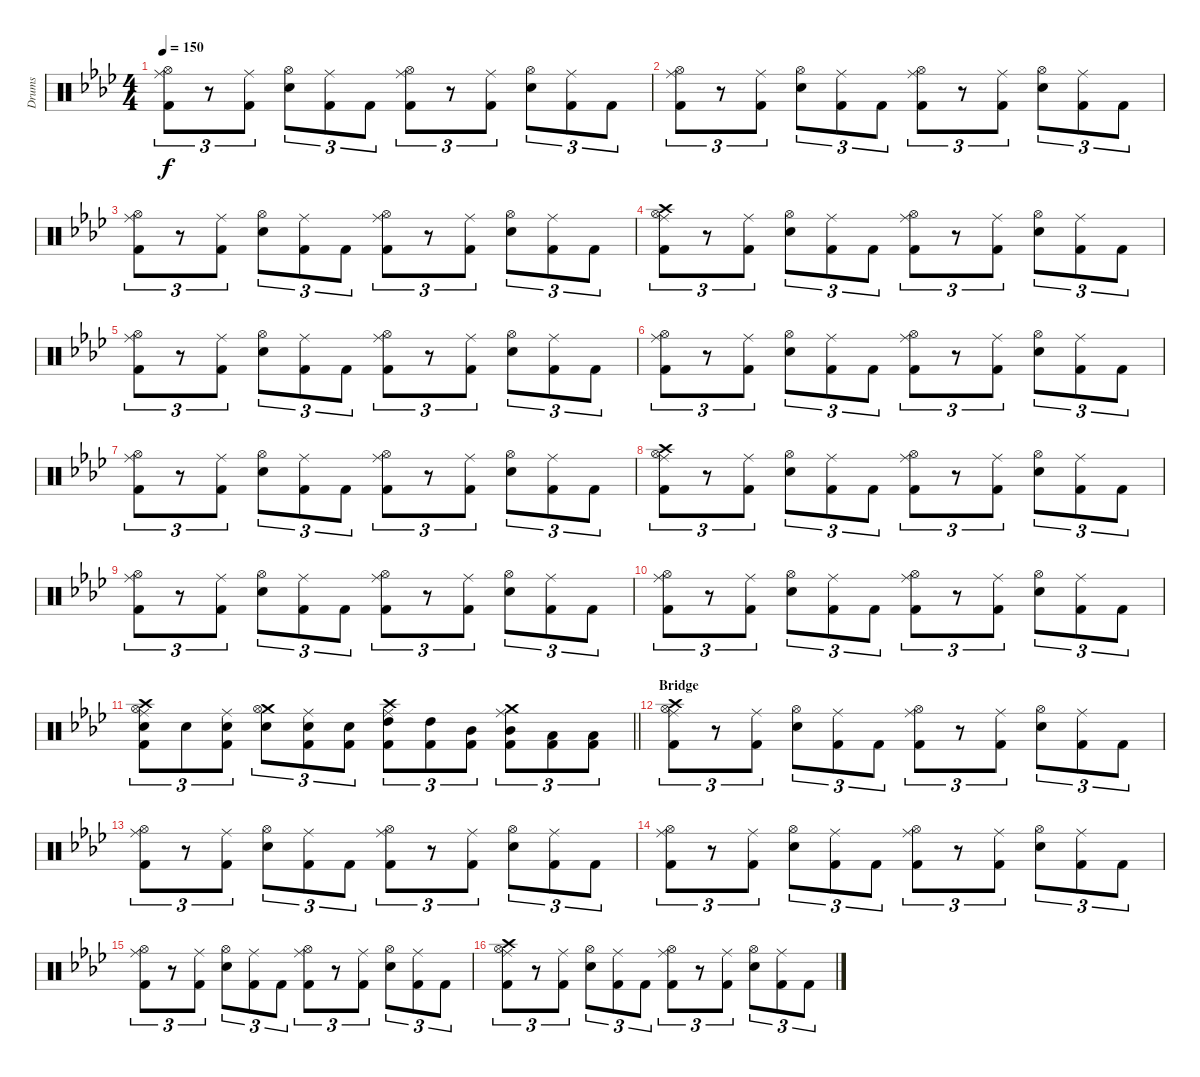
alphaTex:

\track ("Drums" "Drums") {instrument percussion}
\staff {score}
\articulation defaults
\ts (4 4)
\tempo 150
\clef neutral
\ks fminor
("Hi-Hat (open)" "Ride (middle)" "Kick (hit) 2").8{tu (3 2) dy f} r.8{tu (3 2)} ("Ride (middle)" "Kick (hit) 2").8{tu (3 2)} ("Hi-Hat (open)" "Snare (hit) 2").8{tu (3 2)} ("Ride (middle)" "Kick (hit) 2").8{tu (3 2)} "Kick (hit) 2".8{tu (3 2)} ("Hi-Hat (open)" "Ride (middle)" "Kick (hit) 2").8{tu (3 2)} r.8{tu (3 2)} ("Ride (middle)" "Kick (hit) 2").8{tu (3 2)} ("Hi-Hat (open)" "Snare (hit) 2").8{tu (3 2)} ("Ride (middle)" "Kick (hit) 2").8{tu (3 2)} "Kick (hit) 2".8{tu (3 2)} |
("Hi-Hat (open)" "Ride (middle)" "Kick (hit) 2").8{tu (3 2)} r.8{tu (3 2)} ("Ride (middle)" "Kick (hit) 2").8{tu (3 2)} ("Hi-Hat (open)" "Snare (hit) 2").8{tu (3 2)} ("Ride (middle)" "Kick (hit) 2").8{tu (3 2)} "Kick (hit) 2".8{tu (3 2)} ("Hi-Hat (open)" "Ride (middle)" "Kick (hit) 2").8{tu (3 2)} r.8{tu (3 2)} ("Ride (middle)" "Kick (hit) 2").8{tu (3 2)} ("Hi-Hat (open)" "Snare (hit) 2").8{tu (3 2)} ("Ride (middle)" "Kick (hit) 2").8{tu (3 2)} "Kick (hit) 2".8{tu (3 2)} |
("Hi-Hat (open)" "Ride (middle)" "Kick (hit) 2").8{tu (3 2)} r.8{tu (3 2)} ("Ride (middle)" "Kick (hit) 2").8{tu (3 2)} ("Hi-Hat (open)" "Snare (hit) 2").8{tu (3 2)} ("Ride (middle)" "Kick (hit) 2").8{tu (3 2)} "Kick (hit) 2".8{tu (3 2)} ("Hi-Hat (open)" "Ride (middle)" "Kick (hit) 2").8{tu (3 2)} r.8{tu (3 2)} ("Ride (middle)" "Kick (hit) 2").8{tu (3 2)} ("Hi-Hat (open)" "Snare (hit) 2").8{tu (3 2)} ("Ride (middle)" "Kick (hit) 2").8{tu (3 2)} "Kick (hit) 2".8{tu (3 2)} |
("Crash high (hit)" "Hi-Hat (open)" "Ride (middle)" "Kick (hit) 2").8{tu (3 2)} r.8{tu (3 2)} ("Ride (middle)" "Kick (hit) 2").8{tu (3 2)} ("Hi-Hat (open)" "Snare (hit) 2").8{tu (3 2)} ("Ride (middle)" "Kick (hit) 2").8{tu (3 2)} "Kick (hit) 2".8{tu (3 2)} ("Hi-Hat (open)" "Ride (middle)" "Kick (hit) 2").8{tu (3 2)} r.8{tu (3 2)} ("Ride (middle)" "Kick (hit) 2").8{tu (3 2)} ("Hi-Hat (open)" "Snare (hit) 2").8{tu (3 2)} ("Ride (middle)" "Kick (hit) 2").8{tu (3 2)} "Kick (hit) 2".8{tu (3 2)} |
("Hi-Hat (open)" "Ride (middle)" "Kick (hit) 2").8{tu (3 2)} r.8{tu (3 2)} ("Ride (middle)" "Kick (hit) 2").8{tu (3 2)} ("Hi-Hat (open)" "Snare (hit) 2").8{tu (3 2)} ("Ride (middle)" "Kick (hit) 2").8{tu (3 2)} "Kick (hit) 2".8{tu (3 2)} ("Hi-Hat (open)" "Ride (middle)" "Kick (hit) 2").8{tu (3 2)} r.8{tu (3 2)} ("Ride (middle)" "Kick (hit) 2").8{tu (3 2)} ("Hi-Hat (open)" "Snare (hit) 2").8{tu (3 2)} ("Ride (middle)" "Kick (hit) 2").8{tu (3 2)} "Kick (hit) 2".8{tu (3 2)} |
("Hi-Hat (open)" "Ride (middle)" "Kick (hit) 2").8{tu (3 2)} r.8{tu (3 2)} ("Ride (middle)" "Kick (hit) 2").8{tu (3 2)} ("Hi-Hat (open)" "Snare (hit) 2").8{tu (3 2)} ("Ride (middle)" "Kick (hit) 2").8{tu (3 2)} "Kick (hit) 2".8{tu (3 2)} ("Hi-Hat (open)" "Ride (middle)" "Kick (hit) 2").8{tu (3 2)} r.8{tu (3 2)} ("Ride (middle)" "Kick (hit) 2").8{tu (3 2)} ("Hi-Hat (open)" "Snare (hit) 2").8{tu (3 2)} ("Ride (middle)" "Kick (hit) 2").8{tu (3 2)} "Kick (hit) 2".8{tu (3 2)} |
("Hi-Hat (open)" "Ride (middle)" "Kick (hit) 2").8{tu (3 2)} r.8{tu (3 2)} ("Ride (middle)" "Kick (hit) 2").8{tu (3 2)} ("Hi-Hat (open)" "Snare (hit) 2").8{tu (3 2)} ("Ride (middle)" "Kick (hit) 2").8{tu (3 2)} "Kick (hit) 2".8{tu (3 2)} ("Hi-Hat (open)" "Ride (middle)" "Kick (hit) 2").8{tu (3 2)} r.8{tu (3 2)} ("Ride (middle)" "Kick (hit) 2").8{tu (3 2)} ("Hi-Hat (open)" "Snare (hit) 2").8{tu (3 2)} ("Ride (middle)" "Kick (hit) 2").8{tu (3 2)} "Kick (hit) 2".8{tu (3 2)} |
("Crash high (hit)" "Hi-Hat (open)" "Ride (middle)" "Kick (hit) 2").8{tu (3 2)} r.8{tu (3 2)} ("Ride (middle)" "Kick (hit) 2").8{tu (3 2)} ("Hi-Hat (open)" "Snare (hit) 2").8{tu (3 2)} ("Ride (middle)" "Kick (hit) 2").8{tu (3 2)} "Kick (hit) 2".8{tu (3 2)} ("Hi-Hat (open)" "Ride (middle)" "Kick (hit) 2").8{tu (3 2)} r.8{tu (3 2)} ("Ride (middle)" "Kick (hit) 2").8{tu (3 2)} ("Hi-Hat (open)" "Snare (hit) 2").8{tu (3 2)} ("Ride (middle)" "Kick (hit) 2").8{tu (3 2)} "Kick (hit) 2".8{tu (3 2)} |
("Hi-Hat (open)" "Ride (middle)" "Kick (hit) 2").8{tu (3 2)} r.8{tu (3 2)} ("Ride (middle)" "Kick (hit) 2").8{tu (3 2)} ("Hi-Hat (open)" "Snare (hit) 2").8{tu (3 2)} ("Ride (middle)" "Kick (hit) 2").8{tu (3 2)} "Kick (hit) 2".8{tu (3 2)} ("Hi-Hat (open)" "Ride (middle)" "Kick (hit) 2").8{tu (3 2)} r.8{tu (3 2)} ("Ride (middle)" "Kick (hit) 2").8{tu (3 2)} ("Hi-Hat (open)" "Snare (hit) 2").8{tu (3 2)} ("Ride (middle)" "Kick (hit) 2").8{tu (3 2)} "Kick (hit) 2".8{tu (3 2)} |
("Hi-Hat (open)" "Ride (middle)" "Kick (hit) 2").8{tu (3 2)} r.8{tu (3 2)} ("Ride (middle)" "Kick (hit) 2").8{tu (3 2)} ("Hi-Hat (open)" "Snare (hit) 2").8{tu (3 2)} ("Ride (middle)" "Kick (hit) 2").8{tu (3 2)} "Kick (hit) 2".8{tu (3 2)} ("Hi-Hat (open)" "Ride (middle)" "Kick (hit) 2").8{tu (3 2)} r.8{tu (3 2)} ("Ride (middle)" "Kick (hit) 2").8{tu (3 2)} ("Hi-Hat (open)" "Snare (hit) 2").8{tu (3 2)} ("Ride (middle)" "Kick (hit) 2").8{tu (3 2)} "Kick (hit) 2".8{tu (3 2)} |
\barLineRight lightlight
("Crash high (hit)" "Hi-Hat (open)" "Ride (middle)" "Snare (hit) 2" "Kick (hit) 2").8{tu (3 2)} "Snare (hit) 2".8{tu (3 2)} ("Ride (middle)" "Snare (hit) 2" "Kick (hit) 2").8{tu (3 2)} ("Crash medium (hit)" "Hi-Hat (open)" "Snare (hit) 2").8{tu (3 2)} ("Ride (middle)" "Snare (hit) 2" "Kick (hit) 2").8{tu (3 2)} ("Snare (hit) 2" "Kick (hit) 2").8{tu (3 2)} ("Ride (middle)" "Crash high (hit)" "High Tom (hit)" "Kick (hit) 2").8{tu (3 2)} ("High Tom (hit)" "Kick (hit) 2").8{tu (3 2)} ("Mid Tom (hit)" "Kick (hit) 2").8{tu (3 2)} ("Ride (middle)" "Crash medium (hit)" "Mid Tom (hit)" "Kick (hit) 2").8{tu (3 2)} ("Low Tom (hit)" "Kick (hit) 2").8{tu (3 2)} ("Low Tom (hit)" "Kick (hit) 2").8{tu (3 2)} |
\section ("" "Bridge")
("Crash high (hit)" "Hi-Hat (open)" "Ride (middle)" "Kick (hit) 2").8{tu (3 2)} r.8{tu (3 2)} ("Ride (middle)" "Kick (hit) 2").8{tu (3 2)} ("Hi-Hat (open)" "Snare (hit) 2").8{tu (3 2)} ("Ride (middle)" "Kick (hit) 2").8{tu (3 2)} "Kick (hit) 2".8{tu (3 2)} ("Hi-Hat (open)" "Ride (middle)" "Kick (hit) 2").8{tu (3 2)} r.8{tu (3 2)} ("Ride (middle)" "Kick (hit) 2").8{tu (3 2)} ("Hi-Hat (open)" "Snare (hit) 2").8{tu (3 2)} ("Ride (middle)" "Kick (hit) 2").8{tu (3 2)} "Kick (hit) 2".8{tu (3 2)} |
("Hi-Hat (open)" "Ride (middle)" "Kick (hit) 2").8{tu (3 2)} r.8{tu (3 2)} ("Ride (middle)" "Kick (hit) 2").8{tu (3 2)} ("Hi-Hat (open)" "Snare (hit) 2").8{tu (3 2)} ("Ride (middle)" "Kick (hit) 2").8{tu (3 2)} "Kick (hit) 2".8{tu (3 2)} ("Hi-Hat (open)" "Ride (middle)" "Kick (hit) 2").8{tu (3 2)} r.8{tu (3 2)} ("Ride (middle)" "Kick (hit) 2").8{tu (3 2)} ("Hi-Hat (open)" "Snare (hit) 2").8{tu (3 2)} ("Ride (middle)" "Kick (hit) 2").8{tu (3 2)} "Kick (hit) 2".8{tu (3 2)} |
("Hi-Hat (open)" "Ride (middle)" "Kick (hit) 2").8{tu (3 2)} r.8{tu (3 2)} ("Ride (middle)" "Kick (hit) 2").8{tu (3 2)} ("Hi-Hat (open)" "Snare (hit) 2").8{tu (3 2)} ("Ride (middle)" "Kick (hit) 2").8{tu (3 2)} "Kick (hit) 2".8{tu (3 2)} ("Hi-Hat (open)" "Ride (middle)" "Kick (hit) 2").8{tu (3 2)} r.8{tu (3 2)} ("Ride (middle)" "Kick (hit) 2").8{tu (3 2)} ("Hi-Hat (open)" "Snare (hit) 2").8{tu (3 2)} ("Ride (middle)" "Kick (hit) 2").8{tu (3 2)} "Kick (hit) 2".8{tu (3 2)} |
("Hi-Hat (open)" "Ride (middle)" "Kick (hit) 2").8{tu (3 2)} r.8{tu (3 2)} ("Ride (middle)" "Kick (hit) 2").8{tu (3 2)} ("Hi-Hat (open)" "Snare (hit) 2").8{tu (3 2)} ("Ride (middle)" "Kick (hit) 2").8{tu (3 2)} "Kick (hit) 2".8{tu (3 2)} ("Hi-Hat (open)" "Ride (middle)" "Kick (hit) 2").8{tu (3 2)} r.8{tu (3 2)} ("Ride (middle)" "Kick (hit) 2").8{tu (3 2)} ("Hi-Hat (open)" "Snare (hit) 2").8{tu (3 2)} ("Ride (middle)" "Kick (hit) 2").8{tu (3 2)} "Kick (hit) 2".8{tu (3 2)} |
("Crash high (hit)" "Hi-Hat (open)" "Ride (middle)" "Kick (hit) 2").8{tu (3 2)} r.8{tu (3 2)} ("Ride (middle)" "Kick (hit) 2").8{tu (3 2)} ("Hi-Hat (open)" "Snare (hit) 2").8{tu (3 2)} ("Ride (middle)" "Kick (hit) 2").8{tu (3 2)} "Kick (hit) 2".8{tu (3 2)} ("Hi-Hat (open)" "Ride (middle)" "Kick (hit) 2").8{tu (3 2)} r.8{tu (3 2)} ("Ride (middle)" "Kick (hit) 2").8{tu (3 2)} ("Hi-Hat (open)" "Snare (hit) 2").8{tu (3 2)} ("Ride (middle)" "Kick (hit) 2").8{tu (3 2)} "Kick (hit) 2".8{tu (3 2)}
